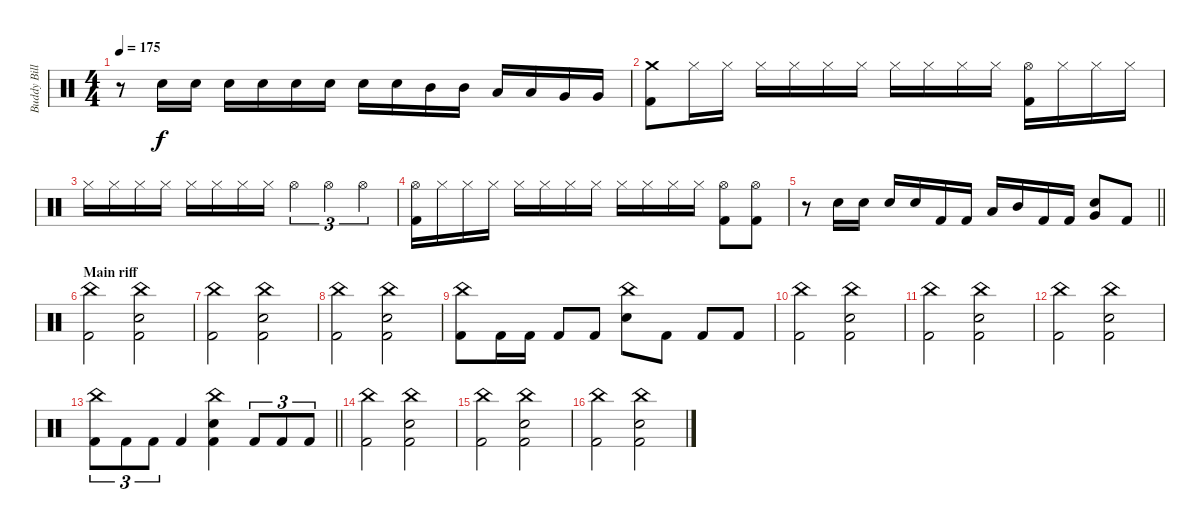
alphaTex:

\track ("Buddy Bill" "Buddy Bill") {instrument percussion}
\staff {score}
\articulation defaults
\ts (4 4)
\tempo 175
\clef neutral
\ks c
r.8{dy f} "Snare (hit) 2".16 "Snare (hit) 2".16 "Snare (hit) 2".16 "Snare (hit) 2".16 "Snare (hit) 2".16 "Snare (hit) 2".16 "Snare (hit) 2".16 "Snare (hit) 2".16 "Mid Tom (hit)".16 "Mid Tom (hit)".16 "Low Tom (hit)".16 "Low Tom (hit)".16 "Very Low Tom (hit)".16 "Very Low Tom (hit)".16 |
("Crash medium (hit)" "Kick (hit) 2").8 "Hi-Hat (closed)".16 "Hi-Hat (closed)".16 "Hi-Hat (closed)".16 "Hi-Hat (closed)".16 "Hi-Hat (closed)".16 "Hi-Hat (closed)".16 "Hi-Hat (closed)".16 "Hi-Hat (closed)".16 "Hi-Hat (closed)".16 "Hi-Hat (closed)".16 ("Hi-Hat (open)" "Kick (hit) 2").16 "Hi-Hat (closed)".16 "Hi-Hat (closed)".16 "Hi-Hat (closed)".16 |
"Hi-Hat (closed)".16 "Hi-Hat (closed)".16 "Hi-Hat (closed)".16 "Hi-Hat (closed)".16 "Hi-Hat (closed)".16 "Hi-Hat (closed)".16 "Hi-Hat (closed)".16 "Hi-Hat (closed)".16 "Hi-Hat (open)".4{tu (3 2)} "Hi-Hat (open)".4{tu (3 2)} "Hi-Hat (open)".4{tu (3 2)} |
("Hi-Hat (open)" "Kick (hit) 2").16 "Hi-Hat (closed)".16 "Hi-Hat (closed)".16 "Hi-Hat (closed)".16 "Hi-Hat (closed)".16 "Hi-Hat (closed)".16 "Hi-Hat (closed)".16 "Hi-Hat (closed)".16 "Hi-Hat (closed)".16 "Hi-Hat (closed)".16 "Hi-Hat (closed)".16 "Hi-Hat (closed)".16 ("Hi-Hat (open)" "Kick (hit) 2").8 ("Hi-Hat (open)" "Kick (hit) 2").8 |
\barLineRight lightlight
r.8 "Snare (hit) 2".16 "Snare (hit) 2".16 "Snare (hit) 2".16 "Snare (hit) 2".16 "Kick (hit) 2".16 "Kick (hit) 2".16 "Low Tom (hit)".16 "Mid Tom (hit)".16 "Kick (hit) 2".16 "Kick (hit) 2".16 ("Snare (hit) 2" "Very Low Tom (hit)").8 "Kick (hit) 2".8 |
\section ("" "Main riff")
("China (hit)" "Kick (hit) 2").2 ("China (hit)" "Snare (hit) 2" "Kick (hit) 2").2 |
("China (hit)" "Kick (hit) 2").2 ("China (hit)" "Snare (hit) 2" "Kick (hit) 2").2 |
("China (hit)" "Kick (hit) 2").2 ("China (hit)" "Snare (hit) 2" "Kick (hit) 2").2 |
("China (hit)" "Kick (hit) 2").8 "Kick (hit) 2".16 "Kick (hit) 2".16 "Kick (hit) 2".8 "Kick (hit) 2".8 ("China (hit)" "Snare (hit) 2").8 "Kick (hit) 2".8 "Kick (hit) 2".8 "Kick (hit) 2".8 |
("China (hit)" "Kick (hit) 2").2 ("China (hit)" "Snare (hit) 2" "Kick (hit) 2").2 |
("China (hit)" "Kick (hit) 2").2 ("China (hit)" "Snare (hit) 2" "Kick (hit) 2").2 |
("China (hit)" "Kick (hit) 2").2 ("China (hit)" "Snare (hit) 2" "Kick (hit) 2").2 |
\barLineRight lightlight
("China (hit)" "Kick (hit) 2").8{tu (3 2)} "Kick (hit) 2".8{tu (3 2)} "Kick (hit) 2".8{tu (3 2)} "Kick (hit) 2".4 ("China (hit)" "Snare (hit) 2" "Kick (hit) 2").4 "Kick (hit) 2".8{tu (3 2)} "Kick (hit) 2".8{tu (3 2)} "Kick (hit) 2".8{tu (3 2)} |
\section ("" "")
("China (hit)" "Kick (hit) 2").2 ("China (hit)" "Snare (hit) 2" "Kick (hit) 2").2 |
("China (hit)" "Kick (hit) 2").2 ("China (hit)" "Snare (hit) 2" "Kick (hit) 2").2 |
("China (hit)" "Kick (hit) 2").2 ("China (hit)" "Snare (hit) 2" "Kick (hit) 2").2
